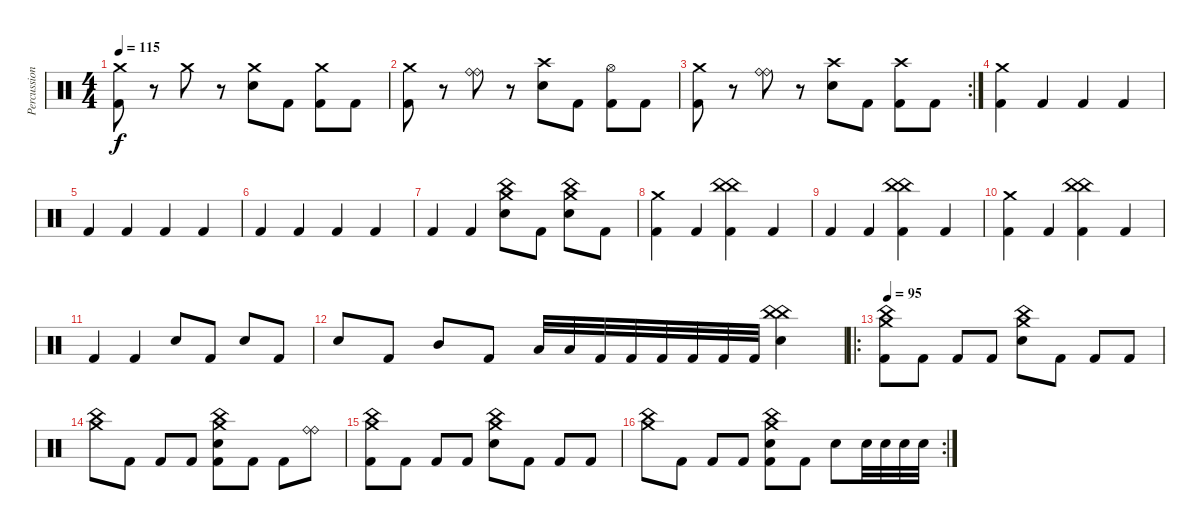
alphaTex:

\track ("Percussion" "Percussion") {instrument percussion}
\staff {score}
\articulation defaults
\ts (4 4)
\tempo 115
\clef neutral
\ks c
("Crash medium (hit)" "Kick (hit) 2").8{dy f} r.8 "Crash medium (hit)".8 r.8 ("Crash medium (hit)" "Snare (hit) 2").8 "Kick (hit) 2".8 ("Crash medium (hit)" "Kick (hit) 2").8 "Kick (hit) 2".8 |
("Crash medium (hit)" "Kick (hit) 2").8 r.8 ("Ride (bell)" "Ride (bell)").8 r.8 ("Crash high (hit)" "Snare (hit) 2").8 "Kick (hit) 2".8 ("Hi-Hat (open)" "Kick (hit) 2").8 "Kick (hit) 2".8 |
\rc 2
("Crash medium (hit)" "Kick (hit) 2").8 r.8 ("Ride (bell)" "Ride (bell)").8 r.8 ("Crash high (hit)" "Snare (hit) 2").8 "Kick (hit) 2".8 ("Crash high (hit)" "Kick (hit) 2").8 "Kick (hit) 2".8 |
("Crash medium (hit)" "Kick (hit) 2").4 "Kick (hit) 2".4 "Kick (hit) 2".4 "Kick (hit) 2".4 |
"Kick (hit) 2".4 "Kick (hit) 2".4 "Kick (hit) 2".4 "Kick (hit) 2".4 |
"Kick (hit) 2".4 "Kick (hit) 2".4 "Kick (hit) 2".4 "Kick (hit) 2".4 |
"Kick (hit) 2".4 "Kick (hit) 2".4 ("Crash medium (hit)" "China (hit)" "Snare (hit) 2").8 "Kick (hit) 2".8 ("Crash medium (hit)" "China (hit)" "Snare (hit) 2").8 "Kick (hit) 2".8 |
("Crash medium (hit)" "Kick (hit) 2").4 "Kick (hit) 2".4 ("China (hit)" "China (hit)" "Kick (hit) 2").4 "Kick (hit) 2".4 |
"Kick (hit) 2".4 "Kick (hit) 2".4 ("China (hit)" "China (hit)" "Kick (hit) 2").4 "Kick (hit) 2".4 |
("Crash medium (hit)" "Kick (hit) 2").4 "Kick (hit) 2".4 ("China (hit)" "China (hit)" "Kick (hit) 2").4 "Kick (hit) 2".4 |
"Kick (hit) 2".4 "Kick (hit) 2".4 "Snare (hit) 2".8 "Kick (hit) 2".8 "Snare (hit) 2".8 "Kick (hit) 2".8 |
"Snare (hit) 2".8 "Kick (hit) 2".8 "Mid Tom (hit)".8 "Kick (hit) 2".8 "Low Tom (hit)".32 "Low Tom (hit)".32 "Kick (hit) 2".32 "Kick (hit) 2".32 "Kick (hit) 2".32 "Kick (hit) 2".32 "Kick (hit) 2".32 "Kick (hit) 2".32 ("China (hit)" "China (hit)" "Snare (hit) 2").4 |
\ro
\tempo 95
("Crash medium (hit)" "China (hit)" "Kick (hit) 2").8 "Kick (hit) 2".8 "Kick (hit) 2".8 "Kick (hit) 2".8 ("Crash medium (hit)" "China (hit)" "Snare (hit) 2").8 "Kick (hit) 2".8 "Kick (hit) 2".8 "Kick (hit) 2".8 |
("Crash medium (hit)" "China (hit)").8 "Kick (hit) 2".8 "Kick (hit) 2".8 "Kick (hit) 2".8 ("China (hit)" "Crash medium (hit)" "Snare (hit) 2" "Kick (hit) 2").8 "Kick (hit) 2".8 "Kick (hit) 2".8 ("Ride (bell)" "Ride (bell)").8 |
("Crash medium (hit)" "China (hit)" "Kick (hit) 2").8 "Kick (hit) 2".8 "Kick (hit) 2".8 "Kick (hit) 2".8 ("Crash medium (hit)" "China (hit)" "Snare (hit) 2").8 "Kick (hit) 2".8 "Kick (hit) 2".8 "Kick (hit) 2".8 |
\rc 2
("Crash medium (hit)" "China (hit)").8 "Kick (hit) 2".8 "Kick (hit) 2".8 "Kick (hit) 2".8 ("Crash medium (hit)" "China (hit)" "Snare (hit) 2" "Kick (hit) 2").8 "Kick (hit) 2".8 "Snare (hit) 2".8 "Snare (hit) 2".32 "Snare (hit) 2".32 "Snare (hit) 2".32 "Snare (hit) 2".32
